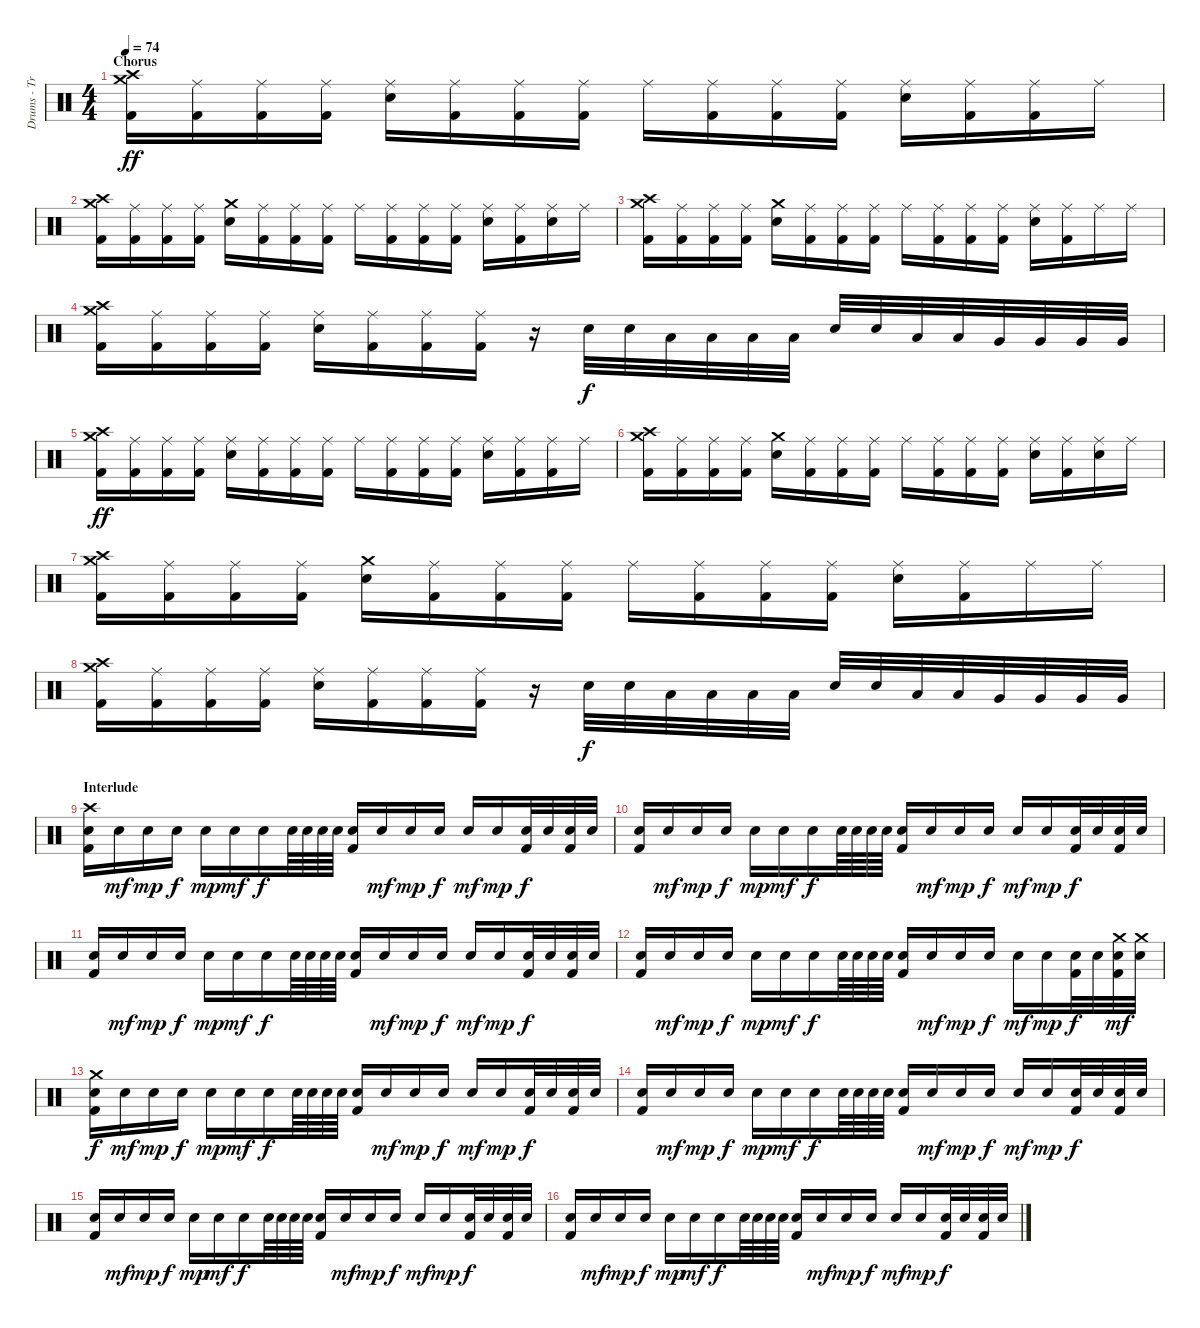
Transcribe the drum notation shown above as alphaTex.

\track ("Drums - Travis" "Drums - Tr") {instrument percussion}
\staff {score}
\articulation defaults
\ts (4 4)
\section ("" "Chorus")
\tempo 74
\clef neutral
\ks c
("Crash medium (hit)" "Crash high (hit)" "Kick (hit) 2").16{dy ff} ("Ride (middle)" "Kick (hit) 2").16 ("Ride (middle)" "Kick (hit) 2").16 ("Ride (middle)" "Kick (hit) 2").16 ("Ride (middle)" "Electric Snare (hit)").16 ("Ride (middle)" "Kick (hit) 2").16 ("Ride (middle)" "Kick (hit) 2").16 ("Ride (middle)" "Kick (hit) 2").16 "Ride (middle)".16 ("Ride (middle)" "Kick (hit) 2").16 ("Ride (middle)" "Kick (hit) 2").16 ("Ride (middle)" "Kick (hit) 2").16 ("Ride (middle)" "Electric Snare (hit)").16 ("Ride (middle)" "Kick (hit) 2").16 ("Ride (middle)" "Kick (hit) 2").16 "Ride (middle)".16 |
("Crash medium (hit)" "Crash high (hit)" "Kick (hit) 2").16 ("Ride (middle)" "Kick (hit) 2").16 ("Ride (middle)" "Kick (hit) 2").16 ("Ride (middle)" "Kick (hit) 2").16 ("Crash medium (hit)" "Electric Snare (hit)").16 ("Ride (middle)" "Kick (hit) 2").16 ("Ride (middle)" "Kick (hit) 2").16 ("Ride (middle)" "Kick (hit) 2").16 "Ride (middle)".16 ("Ride (middle)" "Kick (hit) 2").16 ("Ride (middle)" "Kick (hit) 2").16 ("Ride (middle)" "Kick (hit) 2").16 ("Ride (middle)" "Electric Snare (hit)").16 ("Ride (middle)" "Kick (hit) 2").16 ("Ride (middle)" "Electric Snare (hit)").16 "Ride (middle)".16 |
("Crash medium (hit)" "Crash high (hit)" "Kick (hit) 2").16 ("Ride (middle)" "Kick (hit) 2").16 ("Ride (middle)" "Kick (hit) 2").16 ("Ride (middle)" "Kick (hit) 2").16 ("Crash medium (hit)" "Electric Snare (hit)").16 ("Ride (middle)" "Kick (hit) 2").16 ("Ride (middle)" "Kick (hit) 2").16 ("Ride (middle)" "Kick (hit) 2").16 "Ride (middle)".16 ("Ride (middle)" "Kick (hit) 2").16 ("Ride (middle)" "Kick (hit) 2").16 ("Ride (middle)" "Kick (hit) 2").16 ("Ride (middle)" "Electric Snare (hit)").16 ("Ride (middle)" "Kick (hit) 2").16 "Ride (middle)".16 "Ride (middle)".16 |
("Crash medium (hit)" "Crash high (hit)" "Kick (hit) 2").16 ("Ride (middle)" "Kick (hit) 2").16 ("Ride (middle)" "Kick (hit) 2").16 ("Ride (middle)" "Kick (hit) 2").16 ("Ride (middle)" "Electric Snare (hit)").16 ("Ride (middle)" "Kick (hit) 2").16 ("Ride (middle)" "Kick (hit) 2").16 ("Ride (middle)" "Kick (hit) 2").16 r.16 "Electric Snare (hit)".32{dy f} "Electric Snare (hit)".32 "Low Tom (hit)".32 "Low Tom (hit)".32 "Low Tom (hit)".32 "Low Tom (hit)".32 "Electric Snare (hit)".32 "Electric Snare (hit)".32 "Low Tom (hit)".32 "Low Tom (hit)".32 "Very Low Tom (hit)".32 "Very Low Tom (hit)".32 "Very Low Tom (hit)".32 "Very Low Tom (hit)".32 |
("Crash medium (hit)" "Crash high (hit)" "Kick (hit) 2").16{dy ff} ("Ride (middle)" "Kick (hit) 2").16 ("Ride (middle)" "Kick (hit) 2").16 ("Ride (middle)" "Kick (hit) 2").16 ("Ride (middle)" "Electric Snare (hit)").16 ("Ride (middle)" "Kick (hit) 2").16 ("Ride (middle)" "Kick (hit) 2").16 ("Ride (middle)" "Kick (hit) 2").16 "Ride (middle)".16 ("Ride (middle)" "Kick (hit) 2").16 ("Ride (middle)" "Kick (hit) 2").16 ("Ride (middle)" "Kick (hit) 2").16 ("Ride (middle)" "Electric Snare (hit)").16 ("Ride (middle)" "Kick (hit) 2").16 ("Ride (middle)" "Kick (hit) 2").16 "Ride (middle)".16 |
("Crash medium (hit)" "Crash high (hit)" "Kick (hit) 2").16 ("Ride (middle)" "Kick (hit) 2").16 ("Ride (middle)" "Kick (hit) 2").16 ("Ride (middle)" "Kick (hit) 2").16 ("Crash medium (hit)" "Electric Snare (hit)").16 ("Ride (middle)" "Kick (hit) 2").16 ("Ride (middle)" "Kick (hit) 2").16 ("Ride (middle)" "Kick (hit) 2").16 "Ride (middle)".16 ("Ride (middle)" "Kick (hit) 2").16 ("Ride (middle)" "Kick (hit) 2").16 ("Ride (middle)" "Kick (hit) 2").16 ("Ride (middle)" "Electric Snare (hit)").16 ("Ride (middle)" "Kick (hit) 2").16 ("Ride (middle)" "Electric Snare (hit)").16 "Ride (middle)".16 |
("Crash medium (hit)" "Crash high (hit)" "Kick (hit) 2").16 ("Ride (middle)" "Kick (hit) 2").16 ("Ride (middle)" "Kick (hit) 2").16 ("Ride (middle)" "Kick (hit) 2").16 ("Crash medium (hit)" "Electric Snare (hit)").16 ("Ride (middle)" "Kick (hit) 2").16 ("Ride (middle)" "Kick (hit) 2").16 ("Ride (middle)" "Kick (hit) 2").16 "Ride (middle)".16 ("Ride (middle)" "Kick (hit) 2").16 ("Ride (middle)" "Kick (hit) 2").16 ("Ride (middle)" "Kick (hit) 2").16 ("Ride (middle)" "Electric Snare (hit)").16 ("Ride (middle)" "Kick (hit) 2").16 "Ride (middle)".16 "Ride (middle)".16 |
("Crash medium (hit)" "Crash high (hit)" "Kick (hit) 2").16 ("Ride (middle)" "Kick (hit) 2").16 ("Ride (middle)" "Kick (hit) 2").16 ("Ride (middle)" "Kick (hit) 2").16 ("Ride (middle)" "Electric Snare (hit)").16 ("Ride (middle)" "Kick (hit) 2").16 ("Ride (middle)" "Kick (hit) 2").16 ("Ride (middle)" "Kick (hit) 2").16 r.16 "Electric Snare (hit)".32{dy f} "Electric Snare (hit)".32 "Low Tom (hit)".32 "Low Tom (hit)".32 "Low Tom (hit)".32 "Low Tom (hit)".32 "Electric Snare (hit)".32 "Electric Snare (hit)".32 "Low Tom (hit)".32 "Low Tom (hit)".32 "Very Low Tom (hit)".32 "Very Low Tom (hit)".32 "Very Low Tom (hit)".32 "Very Low Tom (hit)".32 |
\section ("" "Interlude")
("Crash high (hit)" "Electric Snare (hit)" "Kick (hit) 2").16 "Electric Snare (hit)".16{dy mf} "Electric Snare (hit)".16{dy mp} "Electric Snare (hit)".16{dy f} "Electric Snare (hit)".16{dy mp} "Electric Snare (hit)".16{dy mf} "Electric Snare (hit)".16{dy f} "Electric Snare (hit)".64 "Electric Snare (hit)".64 "Electric Snare (hit)".64 "Electric Snare (hit)".64 ("Electric Snare (hit)" "Kick (hit) 2").16 "Electric Snare (hit)".16{dy mf} "Electric Snare (hit)".16{dy mp} "Electric Snare (hit)".16{dy f} "Electric Snare (hit)".16{dy mf} "Electric Snare (hit)".16{dy mp} ("Electric Snare (hit)" "Kick (hit) 2").32{dy f} "Electric Snare (hit)".32 ("Electric Snare (hit)" "Kick (hit) 2").32 "Electric Snare (hit)".32 |
("Electric Snare (hit)" "Kick (hit) 2").16 "Electric Snare (hit)".16{dy mf} "Electric Snare (hit)".16{dy mp} "Electric Snare (hit)".16{dy f} "Electric Snare (hit)".16{dy mp} "Electric Snare (hit)".16{dy mf} "Electric Snare (hit)".16{dy f} "Electric Snare (hit)".64 "Electric Snare (hit)".64 "Electric Snare (hit)".64 "Electric Snare (hit)".64 ("Electric Snare (hit)" "Kick (hit) 2").16 "Electric Snare (hit)".16{dy mf} "Electric Snare (hit)".16{dy mp} "Electric Snare (hit)".16{dy f} "Electric Snare (hit)".16{dy mf} "Electric Snare (hit)".16{dy mp} ("Electric Snare (hit)" "Kick (hit) 2").32{dy f} "Electric Snare (hit)".32 ("Electric Snare (hit)" "Kick (hit) 2").32 "Electric Snare (hit)".32 |
("Electric Snare (hit)" "Kick (hit) 2").16 "Electric Snare (hit)".16{dy mf} "Electric Snare (hit)".16{dy mp} "Electric Snare (hit)".16{dy f} "Electric Snare (hit)".16{dy mp} "Electric Snare (hit)".16{dy mf} "Electric Snare (hit)".16{dy f} "Electric Snare (hit)".64 "Electric Snare (hit)".64 "Electric Snare (hit)".64 "Electric Snare (hit)".64 ("Electric Snare (hit)" "Kick (hit) 2").16 "Electric Snare (hit)".16{dy mf} "Electric Snare (hit)".16{dy mp} "Electric Snare (hit)".16{dy f} "Electric Snare (hit)".16{dy mf} "Electric Snare (hit)".16{dy mp} ("Electric Snare (hit)" "Kick (hit) 2").32{dy f} "Electric Snare (hit)".32 ("Electric Snare (hit)" "Kick (hit) 2").32 "Electric Snare (hit)".32 |
("Electric Snare (hit)" "Kick (hit) 2").16 "Electric Snare (hit)".16{dy mf} "Electric Snare (hit)".16{dy mp} "Electric Snare (hit)".16{dy f} "Electric Snare (hit)".16{dy mp} "Electric Snare (hit)".16{dy mf} "Electric Snare (hit)".16{dy f} "Electric Snare (hit)".64 "Electric Snare (hit)".64 "Electric Snare (hit)".64 "Electric Snare (hit)".64 ("Electric Snare (hit)" "Kick (hit) 2").16 "Electric Snare (hit)".16{dy mf} "Electric Snare (hit)".16{dy mp} "Electric Snare (hit)".16{dy f} "Electric Snare (hit)".16{dy mf} "Electric Snare (hit)".16{dy mp} ("Electric Snare (hit)" "Kick (hit) 2").32{dy f} "Electric Snare (hit)".32 ("Crash medium (hit)" "Electric Snare (hit)" "Kick (hit) 2").32{dy mf} ("Crash medium (hit)" "Electric Snare (hit)").32 |
("Crash medium (hit)" "Electric Snare (hit)" "Kick (hit) 2").16{dy f} "Electric Snare (hit)".16{dy mf} "Electric Snare (hit)".16{dy mp} "Electric Snare (hit)".16{dy f} "Electric Snare (hit)".16{dy mp} "Electric Snare (hit)".16{dy mf} "Electric Snare (hit)".16{dy f} "Electric Snare (hit)".64 "Electric Snare (hit)".64 "Electric Snare (hit)".64 "Electric Snare (hit)".64 ("Electric Snare (hit)" "Kick (hit) 2").16 "Electric Snare (hit)".16{dy mf} "Electric Snare (hit)".16{dy mp} "Electric Snare (hit)".16{dy f} "Electric Snare (hit)".16{dy mf} "Electric Snare (hit)".16{dy mp} ("Electric Snare (hit)" "Kick (hit) 2").32{dy f} "Electric Snare (hit)".32 ("Electric Snare (hit)" "Kick (hit) 2").32 "Electric Snare (hit)".32 |
("Electric Snare (hit)" "Kick (hit) 2").16 "Electric Snare (hit)".16{dy mf} "Electric Snare (hit)".16{dy mp} "Electric Snare (hit)".16{dy f} "Electric Snare (hit)".16{dy mp} "Electric Snare (hit)".16{dy mf} "Electric Snare (hit)".16{dy f} "Electric Snare (hit)".64 "Electric Snare (hit)".64 "Electric Snare (hit)".64 "Electric Snare (hit)".64 ("Electric Snare (hit)" "Kick (hit) 2").16 "Electric Snare (hit)".16{dy mf} "Electric Snare (hit)".16{dy mp} "Electric Snare (hit)".16{dy f} "Electric Snare (hit)".16{dy mf} "Electric Snare (hit)".16{dy mp} ("Electric Snare (hit)" "Kick (hit) 2").32{dy f} "Electric Snare (hit)".32 ("Electric Snare (hit)" "Kick (hit) 2").32 "Electric Snare (hit)".32 |
("Electric Snare (hit)" "Kick (hit) 2").16 "Electric Snare (hit)".16{dy mf} "Electric Snare (hit)".16{dy mp} "Electric Snare (hit)".16{dy f} "Electric Snare (hit)".16{dy mp} "Electric Snare (hit)".16{dy mf} "Electric Snare (hit)".16{dy f} "Electric Snare (hit)".64 "Electric Snare (hit)".64 "Electric Snare (hit)".64 "Electric Snare (hit)".64 ("Electric Snare (hit)" "Kick (hit) 2").16 "Electric Snare (hit)".16{dy mf} "Electric Snare (hit)".16{dy mp} "Electric Snare (hit)".16{dy f} "Electric Snare (hit)".16{dy mf} "Electric Snare (hit)".16{dy mp} ("Electric Snare (hit)" "Kick (hit) 2").32{dy f} "Electric Snare (hit)".32 ("Electric Snare (hit)" "Kick (hit) 2").32 "Electric Snare (hit)".32 |
("Electric Snare (hit)" "Kick (hit) 2").16 "Electric Snare (hit)".16{dy mf} "Electric Snare (hit)".16{dy mp} "Electric Snare (hit)".16{dy f} "Electric Snare (hit)".16{dy mp} "Electric Snare (hit)".16{dy mf} "Electric Snare (hit)".16{dy f} "Electric Snare (hit)".64 "Electric Snare (hit)".64 "Electric Snare (hit)".64 "Electric Snare (hit)".64 ("Electric Snare (hit)" "Kick (hit) 2").16 "Electric Snare (hit)".16{dy mf} "Electric Snare (hit)".16{dy mp} "Electric Snare (hit)".16{dy f} "Electric Snare (hit)".16{dy mf} "Electric Snare (hit)".16{dy mp} ("Electric Snare (hit)" "Kick (hit) 2").32{dy f} "Electric Snare (hit)".32 ("Electric Snare (hit)" "Kick (hit) 2").32 "Electric Snare (hit)".32
